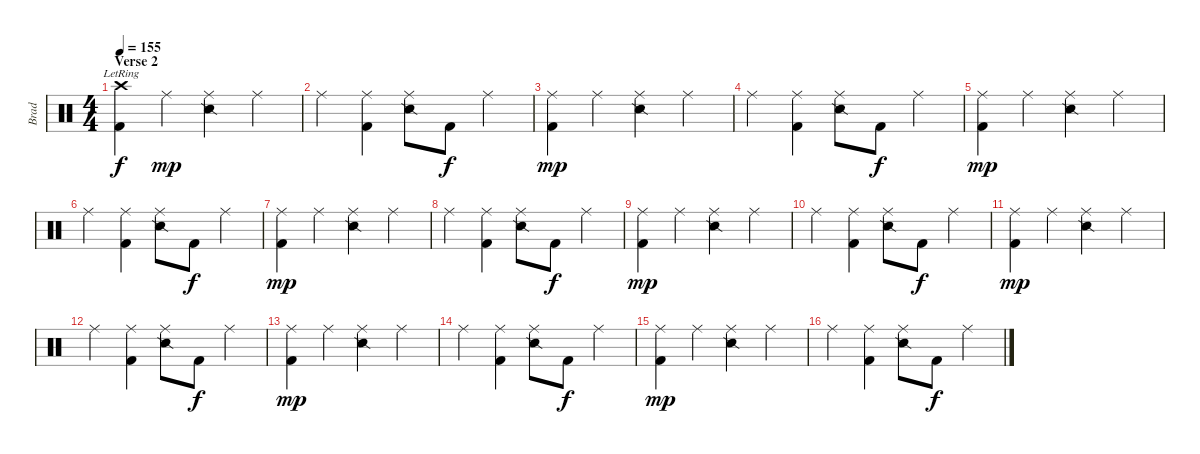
\track ("Brad" "Brad") {instrument percussion}
\staff {score}
\articulation defaults
\ts (4 4)
\section ("" "Verse 2")
\tempo 155
\clef neutral
\ks c
("Crash high (hit)"{lr} "Kick (hit) 2").4{dy f} "Ride (middle)".4{dy mp} ("Ride (middle)" "Snare (side stick) 2").4 "Ride (middle)".4 |
"Ride (middle)".4 ("Ride (middle)" "Kick (hit) 2").4 ("Ride (middle)" "Snare (side stick) 2").8 "Kick (hit) 2".8{dy f} "Ride (middle)".4 |
("Ride (middle)" "Kick (hit) 2").4{dy mp} "Ride (middle)".4 ("Ride (middle)" "Snare (side stick) 2").4 "Ride (middle)".4 |
"Ride (middle)".4 ("Ride (middle)" "Kick (hit) 2").4 ("Ride (middle)" "Snare (side stick) 2").8 "Kick (hit) 2".8{dy f} "Ride (middle)".4 |
("Ride (middle)" "Kick (hit) 2").4{dy mp} "Ride (middle)".4 ("Ride (middle)" "Snare (side stick) 2").4 "Ride (middle)".4 |
"Ride (middle)".4 ("Ride (middle)" "Kick (hit) 2").4 ("Ride (middle)" "Snare (side stick) 2").8 "Kick (hit) 2".8{dy f} "Ride (middle)".4 |
("Ride (middle)" "Kick (hit) 2").4{dy mp} "Ride (middle)".4 ("Ride (middle)" "Snare (side stick) 2").4 "Ride (middle)".4 |
"Ride (middle)".4 ("Ride (middle)" "Kick (hit) 2").4 ("Ride (middle)" "Snare (side stick) 2").8 "Kick (hit) 2".8{dy f} "Ride (middle)".4 |
("Ride (middle)" "Kick (hit) 2").4{dy mp} "Ride (middle)".4 ("Ride (middle)" "Snare (side stick) 2").4 "Ride (middle)".4 |
"Ride (middle)".4 ("Ride (middle)" "Kick (hit) 2").4 ("Ride (middle)" "Snare (side stick) 2").8 "Kick (hit) 2".8{dy f} "Ride (middle)".4 |
("Ride (middle)" "Kick (hit) 2").4{dy mp} "Ride (middle)".4 ("Ride (middle)" "Snare (side stick) 2").4 "Ride (middle)".4 |
"Ride (middle)".4 ("Ride (middle)" "Kick (hit) 2").4 ("Ride (middle)" "Snare (side stick) 2").8 "Kick (hit) 2".8{dy f} "Ride (middle)".4 |
("Ride (middle)" "Kick (hit) 2").4{dy mp} "Ride (middle)".4 ("Ride (middle)" "Snare (side stick) 2").4 "Ride (middle)".4 |
"Ride (middle)".4 ("Ride (middle)" "Kick (hit) 2").4 ("Ride (middle)" "Snare (side stick) 2").8 "Kick (hit) 2".8{dy f} "Ride (middle)".4 |
("Ride (middle)" "Kick (hit) 2").4{dy mp} "Ride (middle)".4 ("Ride (middle)" "Snare (side stick) 2").4 "Ride (middle)".4 |
"Ride (middle)".4 ("Ride (middle)" "Kick (hit) 2").4 ("Ride (middle)" "Snare (side stick) 2").8 "Kick (hit) 2".8{dy f} "Ride (middle)".4
